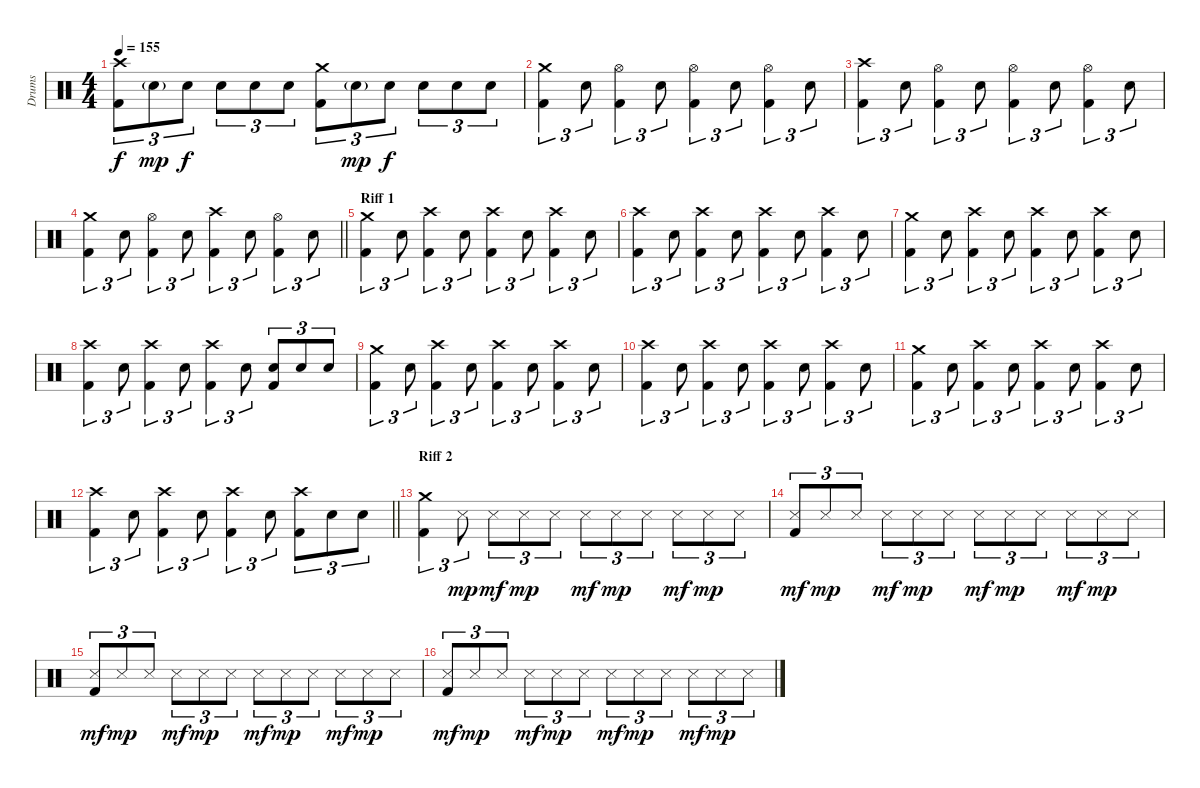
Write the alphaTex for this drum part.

\track ("Drums" "Drums") {instrument percussion}
\staff {score}
\articulation defaults
\ts (4 4)
\tempo 155
\clef neutral
\ks c
("Kick (hit) 2" "Crash high (hit)").8{tu (3 2) dy f} "Electric Snare (hit)"{g}.8{tu (3 2) dy mp} "Electric Snare (hit)".8{tu (3 2) dy f} "Electric Snare (hit)".8{tu (3 2)} "Electric Snare (hit)".8{tu (3 2)} "Electric Snare (hit)".8{tu (3 2)} ("Kick (hit) 2" "Crash medium (hit)").8{tu (3 2)} "Electric Snare (hit)"{g}.8{tu (3 2) dy mp} "Electric Snare (hit)".8{tu (3 2) dy f} "Electric Snare (hit)".8{tu (3 2)} "Electric Snare (hit)".8{tu (3 2)} "Electric Snare (hit)".8{tu (3 2)} |
("Crash medium (hit)" "Kick (hit) 2").4{tu (3 2)} "Electric Snare (hit)".8{tu (3 2)} ("Kick (hit) 2" "Hi-Hat (open)").4{tu (3 2)} "Electric Snare (hit)".8{tu (3 2)} ("Kick (hit) 2" "Hi-Hat (open)").4{tu (3 2)} "Electric Snare (hit)".8{tu (3 2)} ("Kick (hit) 2" "Hi-Hat (open)").4{tu (3 2)} "Electric Snare (hit)".8{tu (3 2)} |
("Kick (hit) 2" "Crash high (hit)").4{tu (3 2)} "Electric Snare (hit)".8{tu (3 2)} ("Kick (hit) 2" "Hi-Hat (open)").4{tu (3 2)} "Electric Snare (hit)".8{tu (3 2)} ("Kick (hit) 2" "Hi-Hat (open)").4{tu (3 2)} "Electric Snare (hit)".8{tu (3 2)} ("Kick (hit) 2" "Hi-Hat (open)").4{tu (3 2)} "Electric Snare (hit)".8{tu (3 2)} |
\barLineRight lightlight
("Crash medium (hit)" "Kick (hit) 2").4{tu (3 2)} "Electric Snare (hit)".8{tu (3 2)} ("Kick (hit) 2" "Hi-Hat (open)").4{tu (3 2)} "Electric Snare (hit)".8{tu (3 2)} ("Kick (hit) 2" "Crash high (hit)").4{tu (3 2)} "Electric Snare (hit)".8{tu (3 2)} ("Kick (hit) 2" "Hi-Hat (open)").4{tu (3 2)} "Electric Snare (hit)".8{tu (3 2)} |
\section ("" "Riff 1")
("Crash medium (hit)" "Kick (hit) 2").4{tu (3 2)} "Electric Snare (hit)".8{tu (3 2)} ("Kick (hit) 2" "Crash high (hit)").4{tu (3 2)} "Electric Snare (hit)".8{tu (3 2)} ("Kick (hit) 2" "Crash high (hit)").4{tu (3 2)} "Electric Snare (hit)".8{tu (3 2)} ("Kick (hit) 2" "Crash high (hit)").4{tu (3 2)} "Electric Snare (hit)".8{tu (3 2)} |
("Kick (hit) 2" "Crash high (hit)").4{tu (3 2)} "Electric Snare (hit)".8{tu (3 2)} ("Kick (hit) 2" "Crash high (hit)").4{tu (3 2)} "Electric Snare (hit)".8{tu (3 2)} ("Kick (hit) 2" "Crash high (hit)").4{tu (3 2)} "Electric Snare (hit)".8{tu (3 2)} ("Kick (hit) 2" "Crash high (hit)").4{tu (3 2)} "Electric Snare (hit)".8{tu (3 2)} |
("Kick (hit) 2" "Crash medium (hit)").4{tu (3 2)} "Electric Snare (hit)".8{tu (3 2)} ("Kick (hit) 2" "Crash high (hit)").4{tu (3 2)} "Electric Snare (hit)".8{tu (3 2)} ("Kick (hit) 2" "Crash high (hit)").4{tu (3 2)} "Electric Snare (hit)".8{tu (3 2)} ("Kick (hit) 2" "Crash high (hit)").4{tu (3 2)} "Electric Snare (hit)".8{tu (3 2)} |
("Kick (hit) 2" "Crash high (hit)").4{tu (3 2)} "Electric Snare (hit)".8{tu (3 2)} ("Kick (hit) 2" "Crash high (hit)").4{tu (3 2)} "Electric Snare (hit)".8{tu (3 2)} ("Kick (hit) 2" "Crash high (hit)").4{tu (3 2)} "Electric Snare (hit)".8{tu (3 2)} ("Electric Snare (hit)" "Kick (hit) 2").8{tu (3 2)} "Electric Snare (hit)".8{tu (3 2)} "Electric Snare (hit)".8{tu (3 2)} |
("Crash medium (hit)" "Kick (hit) 2").4{tu (3 2)} "Electric Snare (hit)".8{tu (3 2)} ("Kick (hit) 2" "Crash high (hit)").4{tu (3 2)} "Electric Snare (hit)".8{tu (3 2)} ("Kick (hit) 2" "Crash high (hit)").4{tu (3 2)} "Electric Snare (hit)".8{tu (3 2)} ("Kick (hit) 2" "Crash high (hit)").4{tu (3 2)} "Electric Snare (hit)".8{tu (3 2)} |
("Kick (hit) 2" "Crash high (hit)").4{tu (3 2)} "Electric Snare (hit)".8{tu (3 2)} ("Kick (hit) 2" "Crash high (hit)").4{tu (3 2)} "Electric Snare (hit)".8{tu (3 2)} ("Kick (hit) 2" "Crash high (hit)").4{tu (3 2)} "Electric Snare (hit)".8{tu (3 2)} ("Kick (hit) 2" "Crash high (hit)").4{tu (3 2)} "Electric Snare (hit)".8{tu (3 2)} |
("Kick (hit) 2" "Crash medium (hit)").4{tu (3 2)} "Electric Snare (hit)".8{tu (3 2)} ("Kick (hit) 2" "Crash high (hit)").4{tu (3 2)} "Electric Snare (hit)".8{tu (3 2)} ("Kick (hit) 2" "Crash high (hit)").4{tu (3 2)} "Electric Snare (hit)".8{tu (3 2)} ("Kick (hit) 2" "Crash high (hit)").4{tu (3 2)} "Electric Snare (hit)".8{tu (3 2)} |
\barLineRight lightlight
("Kick (hit) 2" "Crash high (hit)").4{tu (3 2)} "Electric Snare (hit)".8{tu (3 2)} ("Kick (hit) 2" "Crash high (hit)").4{tu (3 2)} "Electric Snare (hit)".8{tu (3 2)} ("Kick (hit) 2" "Crash high (hit)").4{tu (3 2)} "Electric Snare (hit)".8{tu (3 2)} ("Crash high (hit)" "Kick (hit) 2").8{tu (3 2)} "Electric Snare (hit)".8{tu (3 2)} "Electric Snare (hit)".8{tu (3 2)} |
\section ("" "Riff 2")
("Crash medium (hit)" "Kick (hit) 2").4{tu (3 2)} "Snare (side stick) 3".8{tu (3 2) dy mp} "Snare (side stick) 3".8{tu (3 2) dy mf} "Snare (side stick) 3".8{tu (3 2) dy mp} "Snare (side stick) 3".8{tu (3 2)} "Snare (side stick) 3".8{tu (3 2) dy mf} "Snare (side stick) 3".8{tu (3 2) dy mp} "Snare (side stick) 3".8{tu (3 2)} "Snare (side stick) 3".8{tu (3 2) dy mf} "Snare (side stick) 3".8{tu (3 2) dy mp} "Snare (side stick) 3".8{tu (3 2)} |
("Snare (side stick) 3" "Kick (hit) 2").8{tu (3 2) dy mf} "Snare (side stick) 3".8{tu (3 2) dy mp} "Snare (side stick) 3".8{tu (3 2)} "Snare (side stick) 3".8{tu (3 2) dy mf} "Snare (side stick) 3".8{tu (3 2) dy mp} "Snare (side stick) 3".8{tu (3 2)} "Snare (side stick) 3".8{tu (3 2) dy mf} "Snare (side stick) 3".8{tu (3 2) dy mp} "Snare (side stick) 3".8{tu (3 2)} "Snare (side stick) 3".8{tu (3 2) dy mf} "Snare (side stick) 3".8{tu (3 2) dy mp} "Snare (side stick) 3".8{tu (3 2)} |
("Snare (side stick) 3" "Kick (hit) 2").8{tu (3 2) dy mf} "Snare (side stick) 3".8{tu (3 2) dy mp} "Snare (side stick) 3".8{tu (3 2)} "Snare (side stick) 3".8{tu (3 2) dy mf} "Snare (side stick) 3".8{tu (3 2) dy mp} "Snare (side stick) 3".8{tu (3 2)} "Snare (side stick) 3".8{tu (3 2) dy mf} "Snare (side stick) 3".8{tu (3 2) dy mp} "Snare (side stick) 3".8{tu (3 2)} "Snare (side stick) 3".8{tu (3 2) dy mf} "Snare (side stick) 3".8{tu (3 2) dy mp} "Snare (side stick) 3".8{tu (3 2)} |
("Snare (side stick) 3" "Kick (hit) 2").8{tu (3 2) dy mf} "Snare (side stick) 3".8{tu (3 2) dy mp} "Snare (side stick) 3".8{tu (3 2)} "Snare (side stick) 3".8{tu (3 2) dy mf} "Snare (side stick) 3".8{tu (3 2) dy mp} "Snare (side stick) 3".8{tu (3 2)} "Snare (side stick) 3".8{tu (3 2) dy mf} "Snare (side stick) 3".8{tu (3 2) dy mp} "Snare (side stick) 3".8{tu (3 2)} "Snare (side stick) 3".8{tu (3 2) dy mf} "Snare (side stick) 3".8{tu (3 2) dy mp} "Snare (side stick) 3".8{tu (3 2)}
